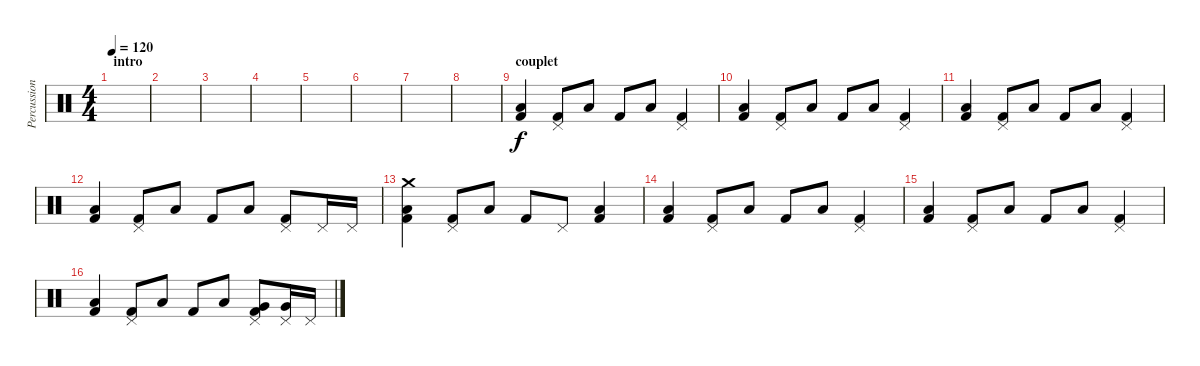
\track ("Percussions" "Percussion") {instrument percussion}
\staff {score}
\articulation defaults
\ts (4 4)
\section ("" "intro")
\tempo 120
\clef neutral
\ks c
|
|
|
|
|
|
|
|
\section ("" "couplet")
("Low Floor Tom (hit)" "Kick (hit) 2").4 ("Pedal Hi-Hat (hit)" "Kick (hit) 2").8 "Low Floor Tom (hit)".8 "Kick (hit) 2".8 "Low Floor Tom (hit)".8 ("Pedal Hi-Hat (hit)" "Kick (hit) 2").4 |
("Low Floor Tom (hit)" "Kick (hit) 2").4 ("Pedal Hi-Hat (hit)" "Kick (hit) 2").8 "Low Floor Tom (hit)".8 "Kick (hit) 2".8 "Low Floor Tom (hit)".8 ("Pedal Hi-Hat (hit)" "Kick (hit) 2").4 |
("Low Floor Tom (hit)" "Kick (hit) 2").4 ("Pedal Hi-Hat (hit)" "Kick (hit) 2").8 "Low Floor Tom (hit)".8 "Kick (hit) 2".8 "Low Floor Tom (hit)".8 ("Pedal Hi-Hat (hit)" "Kick (hit) 2").4 |
("Low Floor Tom (hit)" "Kick (hit) 2").4 ("Pedal Hi-Hat (hit)" "Kick (hit) 2").8 "Low Floor Tom (hit)".8 "Kick (hit) 2".8 "Low Floor Tom (hit)".8 ("Pedal Hi-Hat (hit)" "Kick (hit) 2").8 "Pedal Hi-Hat (hit)".16 "Pedal Hi-Hat (hit)".16 |
("Low Floor Tom (hit)" "Crash medium (hit)" "Kick (hit) 2").4 ("Pedal Hi-Hat (hit)" "Kick (hit) 2").8 "Low Floor Tom (hit)".8 "Kick (hit) 2".8 "Pedal Hi-Hat (hit)".8 ("Low Floor Tom (hit)" "Kick (hit) 2").4 |
("Low Floor Tom (hit)" "Kick (hit) 2").4 ("Pedal Hi-Hat (hit)" "Kick (hit) 2").8 "Low Floor Tom (hit)".8 "Kick (hit) 2".8 "Low Floor Tom (hit)".8 ("Pedal Hi-Hat (hit)" "Kick (hit) 2").4 |
("Low Floor Tom (hit)" "Kick (hit) 2").4 ("Pedal Hi-Hat (hit)" "Kick (hit) 2").8 "Low Floor Tom (hit)".8 "Kick (hit) 2".8 "Low Floor Tom (hit)".8 ("Pedal Hi-Hat (hit)" "Kick (hit) 2").4 |
("Low Floor Tom (hit)" "Kick (hit) 2").4 ("Pedal Hi-Hat (hit)" "Kick (hit) 2").8 "Low Floor Tom (hit)".8 "Kick (hit) 2".8 "Low Floor Tom (hit)".8 ("Pedal Hi-Hat (hit)" "Very Low Tom (hit)" "Kick (hit) 2").8 ("Pedal Hi-Hat (hit)" "Very Low Tom (hit)").16 "Pedal Hi-Hat (hit)".16
